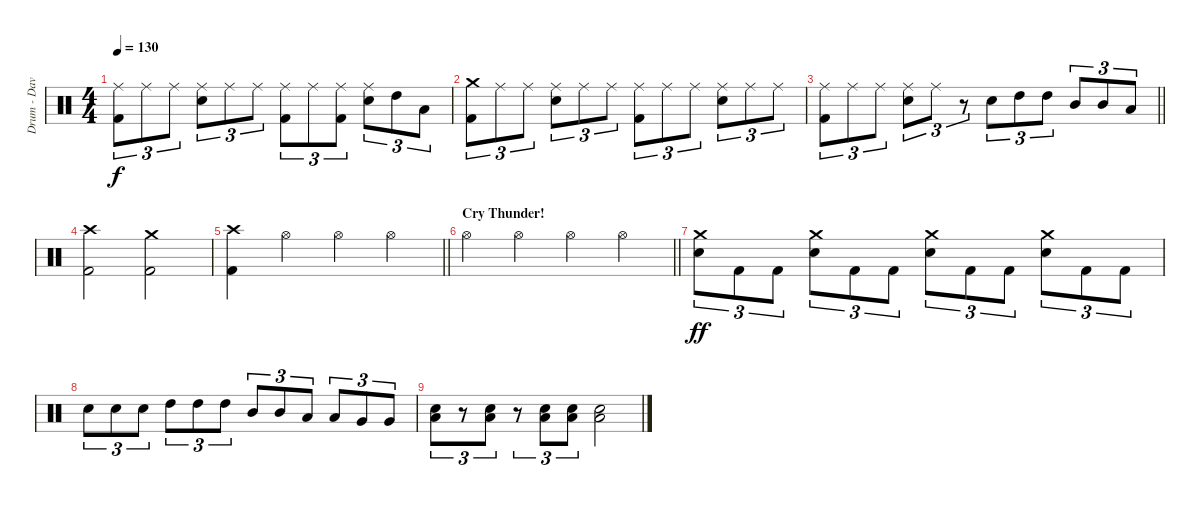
\track ("Drum - Dave Mackintosh" "Drum - Dav") {instrument percussion}
\staff {score}
\articulation defaults
\ts (4 4)
\tempo 130
\clef neutral
\ks c
("Ride (middle)" "Kick (hit) 2").8{tu (3 2) dy f} "Ride (middle)".8{tu (3 2)} "Ride (middle)".8{tu (3 2)} ("Ride (middle)" "Electric Snare (hit)").8{tu (3 2)} "Ride (middle)".8{tu (3 2)} "Ride (middle)".8{tu (3 2)} ("Ride (middle)" "Kick (hit) 2").8{tu (3 2)} "Ride (middle)".8{tu (3 2)} ("Ride (middle)" "Kick (hit) 2").8{tu (3 2)} ("Ride (middle)" "Electric Snare (hit)").8{tu (3 2)} "High Tom (hit)".8{tu (3 2)} "Low Tom (hit)".8{tu (3 2)} |
("Crash medium (hit)" "Kick (hit) 2").8{tu (3 2)} "Ride (middle)".8{tu (3 2)} "Ride (middle)".8{tu (3 2)} ("Ride (middle)" "Electric Snare (hit)").8{tu (3 2)} "Ride (middle)".8{tu (3 2)} "Ride (middle)".8{tu (3 2)} ("Ride (middle)" "Kick (hit) 2").8{tu (3 2)} "Ride (middle)".8{tu (3 2)} "Ride (middle)".8{tu (3 2)} ("Ride (middle)" "Electric Snare (hit)").8{tu (3 2)} "Ride (middle)".8{tu (3 2)} "Ride (middle)".8{tu (3 2)} |
\barLineRight lightlight
("Ride (middle)" "Kick (hit) 2").8{tu (3 2)} "Ride (middle)".8{tu (3 2)} "Ride (middle)".8{tu (3 2)} ("Ride (middle)" "Electric Snare (hit)").8{tu (3 2)} "Ride (middle)".8{tu (3 2)} r.8{tu (3 2)} "Electric Snare (hit)".8{tu (3 2)} "High Tom (hit)".8{tu (3 2)} "High Tom (hit)".8{tu (3 2)} "Mid Tom (hit)".8{tu (3 2)} "Mid Tom (hit)".8{tu (3 2)} "Low Tom (hit)".8{tu (3 2)} |
("Crash high (hit)" "Kick (hit) 2").2 ("Crash medium (hit)" "Kick (hit) 2").2 |
\barLineRight lightlight
("Crash high (hit)" "Kick (hit) 2").4 "Hi-Hat (open)".4 "Hi-Hat (open)".4 "Hi-Hat (open)".4 |
\section ("" "Cry Thunder!")
\barLineRight lightlight "Hi-Hat (open)".4 "Hi-Hat (open)".4 "Hi-Hat (open)".4 "Hi-Hat (open)".4
|
("Crash medium (hit)" "Electric Snare (hit)").8{tu (3 2) dy ff} "Kick (hit) 2".8{tu (3 2)} "Kick (hit) 2".8{tu (3 2)} ("Crash medium (hit)" "Electric Snare (hit)").8{tu (3 2)} "Kick (hit) 2".8{tu (3 2)} "Kick (hit) 2".8{tu (3 2)} ("Crash medium (hit)" "Electric Snare (hit)").8{tu (3 2)} "Kick (hit) 2".8{tu (3 2)} "Kick (hit) 2".8{tu (3 2)} ("Crash medium (hit)" "Electric Snare (hit)").8{tu (3 2)} "Kick (hit) 2".8{tu (3 2)} "Kick (hit) 2".8{tu (3 2)} |
"Electric Snare (hit)".8{tu (3 2)} "Electric Snare (hit)".8{tu (3 2)} "Electric Snare (hit)".8{tu (3 2)} "High Tom (hit)".8{tu (3 2)} "High Tom (hit)".8{tu (3 2)} "High Tom (hit)".8{tu (3 2)} "Mid Tom (hit)".8{tu (3 2)} "Mid Tom (hit)".8{tu (3 2)} "Low Tom (hit)".8{tu (3 2)} "Low Tom (hit)".8{tu (3 2)} "Very Low Tom (hit)".8{tu (3 2)} "Very Low Tom (hit)".8{tu (3 2)} |
("Electric Snare (hit)" "Low Floor Tom (hit)").8{tu (3 2)} r.8{tu (3 2)} ("Electric Snare (hit)" "Low Floor Tom (hit)").8{tu (3 2)} r.8{tu (3 2)} ("Electric Snare (hit)" "Low Floor Tom (hit)").8{tu (3 2)} ("Electric Snare (hit)" "Low Floor Tom (hit)").8{tu (3 2)} ("Electric Snare (hit)" "Low Floor Tom (hit)").2
